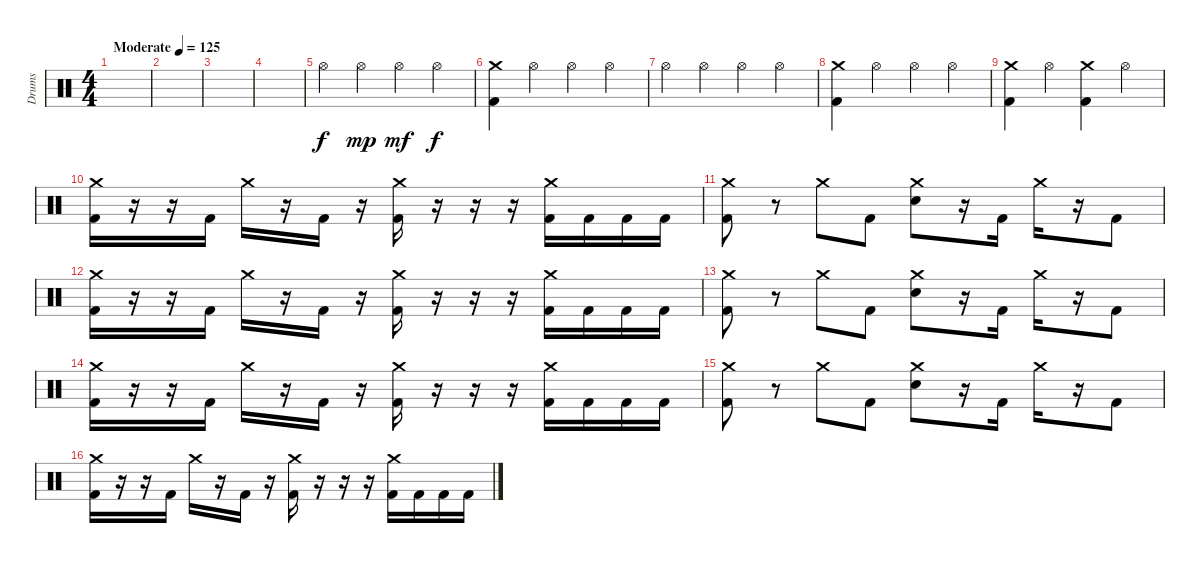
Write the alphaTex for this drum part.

\track ("Drums" "Drums") {instrument percussion}
\staff {score}
\articulation defaults
\ts (4 4)
\tempo (125 "Moderate")
\clef neutral
\ks c
|
|
|
|
"Hi-Hat (open)".4 "Hi-Hat (open)".4{dy mp} "Hi-Hat (open)".4{dy mf} "Hi-Hat (open)".4{dy f} |
("Crash medium (hit)" "Kick (hit) 2").4 "Hi-Hat (open)".4 "Hi-Hat (open)".4 "Hi-Hat (open)".4 |
"Hi-Hat (open)".4 "Hi-Hat (open)".4 "Hi-Hat (open)".4 "Hi-Hat (open)".4 |
("Crash medium (hit)" "Kick (hit) 2").4 "Hi-Hat (open)".4 "Hi-Hat (open)".4 "Hi-Hat (open)".4 |
("Crash medium (hit)" "Kick (hit) 2").4 "Hi-Hat (open)".4 ("Crash medium (hit)" "Kick (hit) 2").4 "Hi-Hat (open)".4 |
("Crash medium (hit)" "Kick (hit) 2").16 r.16 r.16 "Kick (hit) 2".16 "Crash medium (hit)".16 r.16 "Kick (hit) 2".16 r.16 ("Crash medium (hit)" "Kick (hit) 2").16 r.16 r.16 r.16 ("Crash medium (hit)" "Kick (hit) 2").16 "Kick (hit) 2".16 "Kick (hit) 2".16 "Kick (hit) 2".16 |
("Crash medium (hit)" "Kick (hit) 2").8 r.8 "Crash medium (hit)".8 "Kick (hit) 2".8 ("Crash medium (hit)" "Electric Snare (hit)").8 r.16 "Kick (hit) 2".16 "Crash medium (hit)".16 r.16 "Kick (hit) 2".8 |
("Crash medium (hit)" "Kick (hit) 2").16 r.16 r.16 "Kick (hit) 2".16 "Crash medium (hit)".16 r.16 "Kick (hit) 2".16 r.16 ("Crash medium (hit)" "Kick (hit) 2").16 r.16 r.16 r.16 ("Crash medium (hit)" "Kick (hit) 2").16 "Kick (hit) 2".16 "Kick (hit) 2".16 "Kick (hit) 2".16 |
("Crash medium (hit)" "Kick (hit) 2").8 r.8 "Crash medium (hit)".8 "Kick (hit) 2".8 ("Crash medium (hit)" "Electric Snare (hit)").8 r.16 "Kick (hit) 2".16 "Crash medium (hit)".16 r.16 "Kick (hit) 2".8 |
("Crash medium (hit)" "Kick (hit) 2").16 r.16 r.16 "Kick (hit) 2".16 "Crash medium (hit)".16 r.16 "Kick (hit) 2".16 r.16 ("Crash medium (hit)" "Kick (hit) 2").16 r.16 r.16 r.16 ("Crash medium (hit)" "Kick (hit) 2").16 "Kick (hit) 2".16 "Kick (hit) 2".16 "Kick (hit) 2".16 |
("Crash medium (hit)" "Kick (hit) 2").8 r.8 "Crash medium (hit)".8 "Kick (hit) 2".8 ("Crash medium (hit)" "Electric Snare (hit)").8 r.16 "Kick (hit) 2".16 "Crash medium (hit)".16 r.16 "Kick (hit) 2".8 |
("Crash medium (hit)" "Kick (hit) 2").16 r.16 r.16 "Kick (hit) 2".16 "Crash medium (hit)".16 r.16 "Kick (hit) 2".16 r.16 ("Crash medium (hit)" "Kick (hit) 2").16 r.16 r.16 r.16 ("Crash medium (hit)" "Kick (hit) 2").16 "Kick (hit) 2".16 "Kick (hit) 2".16 "Kick (hit) 2".16
